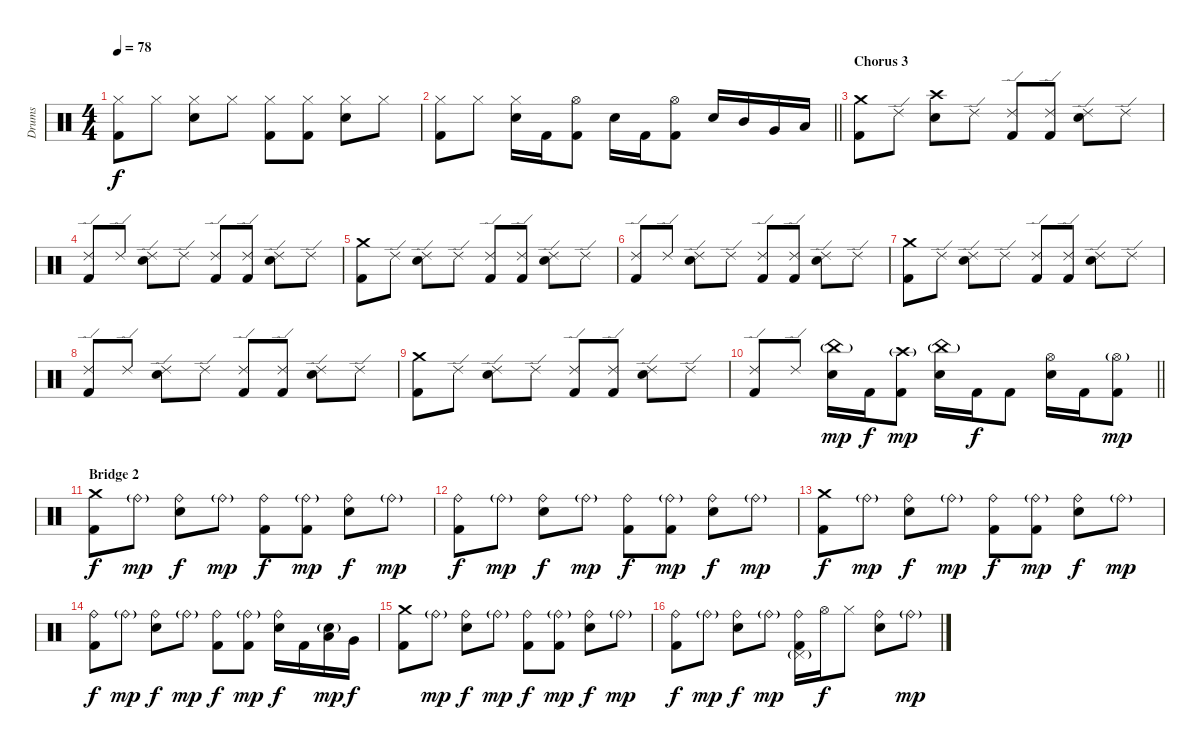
\track ("Drums" "Drums") {instrument percussion}
\staff {score}
\articulation defaults
\ts (4 4)
\tempo 78
\clef neutral
\ks c
("Hi-Hat (closed)" "Kick (hit) 2").8{dy f} "Hi-Hat (closed)".8 ("Hi-Hat (closed)" "Electric Snare (hit)").8 "Hi-Hat (closed)".8 ("Hi-Hat (closed)" "Kick (hit) 2").8 ("Hi-Hat (closed)" "Kick (hit) 2").8 ("Hi-Hat (closed)" "Electric Snare (hit)").8 "Hi-Hat (closed)".8 |
\barLineRight lightlight
("Hi-Hat (closed)" "Kick (hit) 2").8 "Hi-Hat (closed)".8 ("Hi-Hat (closed)" "Electric Snare (hit)").16 "Kick (hit) 2".16 ("Hi-Hat (open)" "Kick (hit) 2").8 "Electric Snare (hit)".16 "Kick (hit) 2".16 ("Hi-Hat (open)" "Kick (hit) 2").8 "Electric Snare (hit)".16 "Mid Tom (hit)".16 "Very Low Tom (hit)".16 "Low Tom (hit)".16 |
\section ("" "Chorus 3")
("Crash medium (hit)" "Kick (hit) 2").8 "Ride (edge) 2".8 ("Crash high (hit)" "Electric Snare (hit)").8 "Ride (edge) 2".8 ("Ride (edge) 2" "Kick (hit) 2").8 ("Ride (edge) 2" "Kick (hit) 2").8 ("Ride (edge) 2" "Electric Snare (hit)").8 "Ride (edge) 2".8 |
("Ride (edge) 2" "Kick (hit) 2").8 "Ride (edge) 2".8 ("Ride (edge) 2" "Electric Snare (hit)").8 "Ride (edge) 2".8 ("Ride (edge) 2" "Kick (hit) 2").8 ("Ride (edge) 2" "Kick (hit) 2").8 ("Ride (edge) 2" "Electric Snare (hit)").8 "Ride (edge) 2".8 |
("Crash medium (hit)" "Kick (hit) 2").8 "Ride (edge) 2".8 ("Ride (edge) 2" "Electric Snare (hit)").8 "Ride (edge) 2".8 ("Ride (edge) 2" "Kick (hit) 2").8 ("Ride (edge) 2" "Kick (hit) 2").8 ("Ride (edge) 2" "Electric Snare (hit)").8 "Ride (edge) 2".8 |
("Ride (edge) 2" "Kick (hit) 2").8 "Ride (edge) 2".8 ("Ride (edge) 2" "Electric Snare (hit)").8 "Ride (edge) 2".8 ("Ride (edge) 2" "Kick (hit) 2").8 ("Ride (edge) 2" "Kick (hit) 2").8 ("Ride (edge) 2" "Electric Snare (hit)").8 "Ride (edge) 2".8 |
("Crash medium (hit)" "Kick (hit) 2").8 "Ride (edge) 2".8 ("Ride (edge) 2" "Electric Snare (hit)").8 "Ride (edge) 2".8 ("Ride (edge) 2" "Kick (hit) 2").8 ("Ride (edge) 2" "Kick (hit) 2").8 ("Ride (edge) 2" "Electric Snare (hit)").8 "Ride (edge) 2".8 |
("Ride (edge) 2" "Kick (hit) 2").8 "Ride (edge) 2".8 ("Ride (edge) 2" "Electric Snare (hit)").8 "Ride (edge) 2".8 ("Ride (edge) 2" "Kick (hit) 2").8 ("Ride (edge) 2" "Kick (hit) 2").8 ("Ride (edge) 2" "Electric Snare (hit)").8 "Ride (edge) 2".8 |
("Crash medium (hit)" "Kick (hit) 2").8 "Ride (edge) 2".8 ("Ride (edge) 2" "Electric Snare (hit)").8 "Ride (edge) 2".8 ("Ride (edge) 2" "Kick (hit) 2").8 ("Ride (edge) 2" "Kick (hit) 2").8 ("Ride (edge) 2" "Electric Snare (hit)").8 "Ride (edge) 2".8 |
\barLineRight lightlight
("Ride (edge) 2" "Kick (hit) 2").8 "Ride (edge) 2".8 ("China (hit)"{g} "Electric Snare (hit)").16{dy mp} "Kick (hit) 2".16{dy f} ("Crash high (hit)"{g} "Kick (hit) 2").8{dy mp} ("China (hit)"{g} "Electric Snare (hit)").16 "Kick (hit) 2".16{dy f} "Kick (hit) 2".8 ("Hi-Hat (open)" "Electric Snare (hit)").16 "Kick (hit) 2".16 ("Hi-Hat (open)"{g} "Kick (hit) 2").8{dy mp} |
\section ("" "Bridge 2")
("Crash medium (hit)" "Kick (hit) 2").8{dy f} "Ride (bell)"{g}.8{dy mp} ("Ride (bell)" "Electric Snare (hit)").8{dy f} "Ride (bell)"{g}.8{dy mp} ("Ride (bell)" "Kick (hit) 2").8{dy f} ("Ride (bell)"{g} "Kick (hit) 2").8{dy mp} ("Ride (bell)" "Electric Snare (hit)").8{dy f} "Ride (bell)"{g}.8{dy mp} |
("Ride (bell)" "Kick (hit) 2").8{dy f} "Ride (bell)"{g}.8{dy mp} ("Ride (bell)" "Electric Snare (hit)").8{dy f} "Ride (bell)"{g}.8{dy mp} ("Ride (bell)" "Kick (hit) 2").8{dy f} ("Ride (bell)"{g} "Kick (hit) 2").8{dy mp} ("Ride (bell)" "Electric Snare (hit)").8{dy f} "Ride (bell)"{g}.8{dy mp} |
("Crash medium (hit)" "Kick (hit) 2").8{dy f} "Ride (bell)"{g}.8{dy mp} ("Ride (bell)" "Electric Snare (hit)").8{dy f} "Ride (bell)"{g}.8{dy mp} ("Ride (bell)" "Kick (hit) 2").8{dy f} ("Ride (bell)"{g} "Kick (hit) 2").8{dy mp} ("Ride (bell)" "Electric Snare (hit)").8{dy f} "Ride (bell)"{g}.8{dy mp} |
("Ride (bell)" "Kick (hit) 2").8{dy f} "Ride (bell)"{g}.8{dy mp} ("Ride (bell)" "Electric Snare (hit)").8{dy f} "Ride (bell)"{g}.8{dy mp} ("Ride (bell)" "Kick (hit) 2").8{dy f} ("Ride (bell)"{g} "Kick (hit) 2").8{dy mp} ("Ride (bell)" "Electric Snare (hit)").16{dy f} "Kick (hit) 2".16 ("Electric Snare (hit)"{g} "Low Tom (hit)").16{dy mp} "Very Low Tom (hit)".16{dy f} |
("Crash medium (hit)" "Kick (hit) 2").8 "Ride (bell)"{g}.8{dy mp} ("Ride (bell)" "Electric Snare (hit)").8{dy f} "Ride (bell)"{g}.8{dy mp} ("Ride (bell)" "Kick (hit) 2").8{dy f} ("Ride (bell)"{g} "Kick (hit) 2").8{dy mp} ("Ride (bell)" "Electric Snare (hit)").8{dy f} "Ride (bell)"{g}.8{dy mp} |
("Ride (bell)" "Kick (hit) 2").8{dy f} "Ride (bell)"{g}.8{dy mp} ("Ride (bell)" "Electric Snare (hit)").8{dy f} "Ride (bell)"{g}.8{dy mp} ("Ride (bell)" "Pedal Hi-Hat (hit)"{g} "Kick (hit) 2").16 "Hi-Hat (open)".16{dy f} "Hi-Hat (closed)".8 ("Ride (bell)" "Electric Snare (hit)").8 "Ride (bell)"{g}.8{dy mp}
